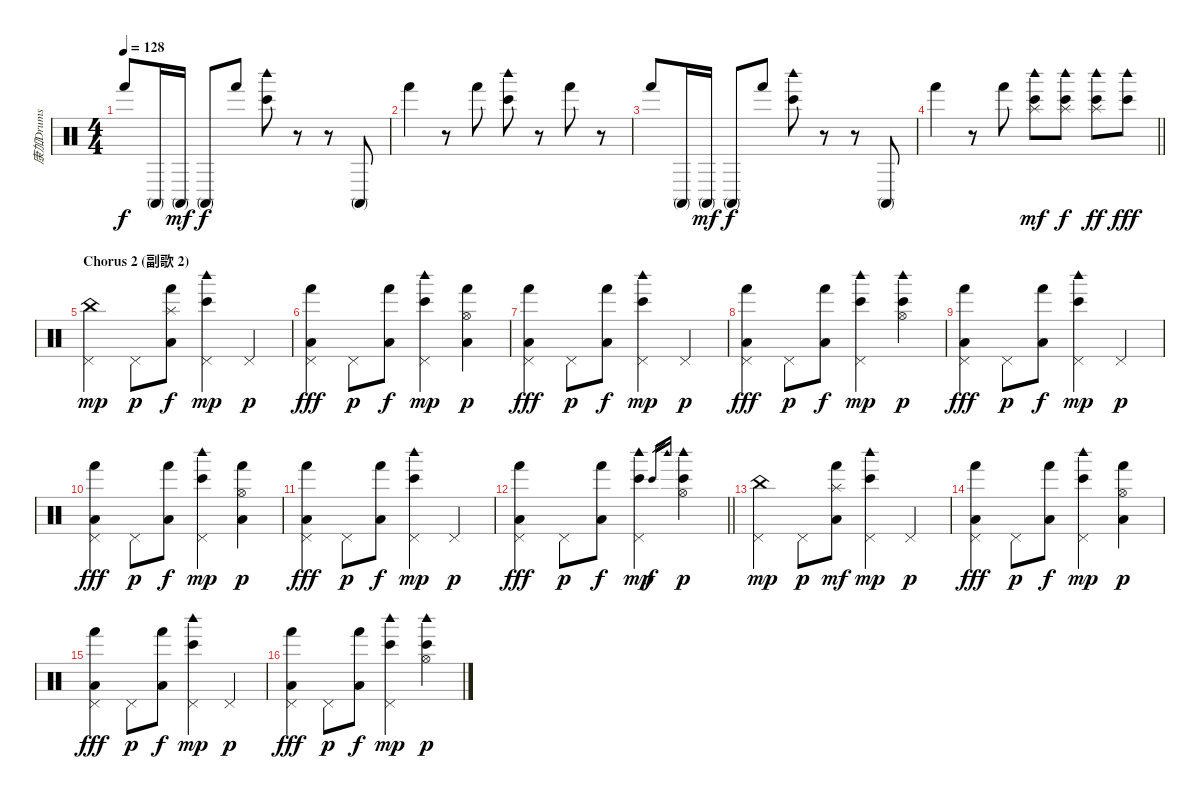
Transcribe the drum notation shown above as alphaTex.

\track ("康加Drums" "康加Drums") {instrument percussion}
\staff {score}
\articulation defaults
\ts (4 4)
\tempo 128
\clef neutral
\ks c "Hand (hit)".8{dy f} "Conga high (mute)".16 "Conga high (mute)".16{dy mf} "Conga high (mute)".8{dy f} "Hand (hit)".8
("Bongo High (hit)" "Woodblock high (hit)").8 r.8 r.8 "Conga high (mute)".8 |
"Hand (hit)".4 r.8 "Hand (hit)".8 ("Bongo High (hit)" "Woodblock high (hit)").8 r.8 "Hand (hit)".8 r.8 |
"Hand (hit)".8 "Conga high (mute)".16 "Conga high (mute)".16{dy mf} "Conga high (mute)".8{dy f} "Hand (hit)".8 ("Bongo High (hit)" "Woodblock high (hit)").8 r.8 r.8 "Conga high (mute)".8 |
\barLineRight lightlight "Hand (hit)".4
r.8 "Hand (hit)".8 ("Bongo High (hit)" "Woodblock high (hit)" "Splash (hit)").8{dy mf} ("Bongo High (hit)" "Woodblock high (hit)" "Splash (hit)").8{dy f} ("Bongo High (hit)" "Woodblock high (hit)" "Splash (hit)").8{dy ff} ("Bongo High (hit)" "Woodblock high (hit)").8{dy fff} |
\section ("" "Chorus 2 (副歌 2)")
("China (hit)" "Pedal Hi-Hat (hit)").4{dy mp} "Pedal Hi-Hat (hit)".8{dy p} ("Splash (hit)" "Hand (hit)" "Low Floor Tom (hit)").8{dy f} ("Bongo High (hit)" "Woodblock high (hit)" "Pedal Hi-Hat (hit)").4{dy mp} "Pedal Hi-Hat (hit)".4{dy p} |
("Pedal Hi-Hat (hit)" "Hand (hit)" "Low Floor Tom (hit)").4{dy fff} "Pedal Hi-Hat (hit)".8{dy p} ("Hand (hit)" "Low Floor Tom (hit)").8{dy f} ("Bongo High (hit)" "Woodblock high (hit)" "Pedal Hi-Hat (hit)").4{dy mp} ("Hi-Hat (open)" "Hand (hit)" "Low Floor Tom (hit)").4{dy p} |
("Pedal Hi-Hat (hit)" "Hand (hit)" "Low Floor Tom (hit)").4{dy fff} "Pedal Hi-Hat (hit)".8{dy p} ("Hand (hit)" "Low Floor Tom (hit)").8{dy f} ("Bongo High (hit)" "Woodblock high (hit)" "Pedal Hi-Hat (hit)").4{dy mp} "Pedal Hi-Hat (hit)".4{dy p} |
("Pedal Hi-Hat (hit)" "Hand (hit)" "Low Floor Tom (hit)").4{dy fff} "Pedal Hi-Hat (hit)".8{dy p} ("Hand (hit)" "Low Floor Tom (hit)").8{dy f} ("Bongo High (hit)" "Woodblock high (hit)" "Pedal Hi-Hat (hit)").4{dy mp} ("Bongo High (hit)" "Woodblock high (hit)" "Hi-Hat (open)").4{dy p} |
("Pedal Hi-Hat (hit)" "Hand (hit)" "Low Floor Tom (hit)").4{dy fff} "Pedal Hi-Hat (hit)".8{dy p} ("Hand (hit)" "Low Floor Tom (hit)").8{dy f} ("Bongo High (hit)" "Woodblock high (hit)" "Pedal Hi-Hat (hit)").4{dy mp} "Pedal Hi-Hat (hit)".4{dy p} |
("Pedal Hi-Hat (hit)" "Hand (hit)" "Low Floor Tom (hit)").4{dy fff} "Pedal Hi-Hat (hit)".8{dy p} ("Hand (hit)" "Low Floor Tom (hit)").8{dy f} ("Bongo High (hit)" "Woodblock high (hit)" "Pedal Hi-Hat (hit)").4{dy mp} ("Hi-Hat (open)" "Hand (hit)" "Low Floor Tom (hit)").4{dy p} |
("Pedal Hi-Hat (hit)" "Hand (hit)" "Low Floor Tom (hit)").4{dy fff} "Pedal Hi-Hat (hit)".8{dy p} ("Hand (hit)" "Low Floor Tom (hit)").8{dy f} ("Bongo High (hit)" "Woodblock high (hit)" "Pedal Hi-Hat (hit)").4{dy mp} "Pedal Hi-Hat (hit)".4{dy p} |
\barLineRight lightlight
("Pedal Hi-Hat (hit)" "Hand (hit)" "Low Floor Tom (hit)").4{dy fff} "Pedal Hi-Hat (hit)".8{dy p} ("Hand (hit)" "Low Floor Tom (hit)").8{dy f} ("Bongo High (hit)" "Woodblock high (hit)" "Pedal Hi-Hat (hit)").4{dy mp} "Bongo High (hit)".16{gr dy f} "Woodblock high (hit)".16{gr} ("Bongo High (hit)" "Woodblock high (hit)" "Hi-Hat (open)").4{dy p} |
("China (hit)" "Pedal Hi-Hat (hit)").4{dy mp} "Pedal Hi-Hat (hit)".8{dy p} ("Splash (hit)" "Hand (hit)" "Low Floor Tom (hit)").8{dy mf} ("Bongo High (hit)" "Woodblock high (hit)" "Pedal Hi-Hat (hit)").4{dy mp} "Pedal Hi-Hat (hit)".4{dy p} |
("Pedal Hi-Hat (hit)" "Hand (hit)" "Low Floor Tom (hit)").4{dy fff} "Pedal Hi-Hat (hit)".8{dy p} ("Hand (hit)" "Low Floor Tom (hit)").8{dy f} ("Bongo High (hit)" "Woodblock high (hit)" "Pedal Hi-Hat (hit)").4{dy mp} ("Hi-Hat (open)" "Hand (hit)" "Low Floor Tom (hit)").4{dy p} |
("Pedal Hi-Hat (hit)" "Hand (hit)" "Low Floor Tom (hit)").4{dy fff} "Pedal Hi-Hat (hit)".8{dy p} ("Hand (hit)" "Low Floor Tom (hit)").8{dy f} ("Bongo High (hit)" "Woodblock high (hit)" "Pedal Hi-Hat (hit)").4{dy mp} "Pedal Hi-Hat (hit)".4{dy p} |
("Pedal Hi-Hat (hit)" "Hand (hit)" "Low Floor Tom (hit)").4{dy fff} "Pedal Hi-Hat (hit)".8{dy p} ("Hand (hit)" "Low Floor Tom (hit)").8{dy f} ("Bongo High (hit)" "Woodblock high (hit)" "Pedal Hi-Hat (hit)").4{dy mp} ("Bongo High (hit)" "Woodblock high (hit)" "Hi-Hat (open)").4{dy p}
